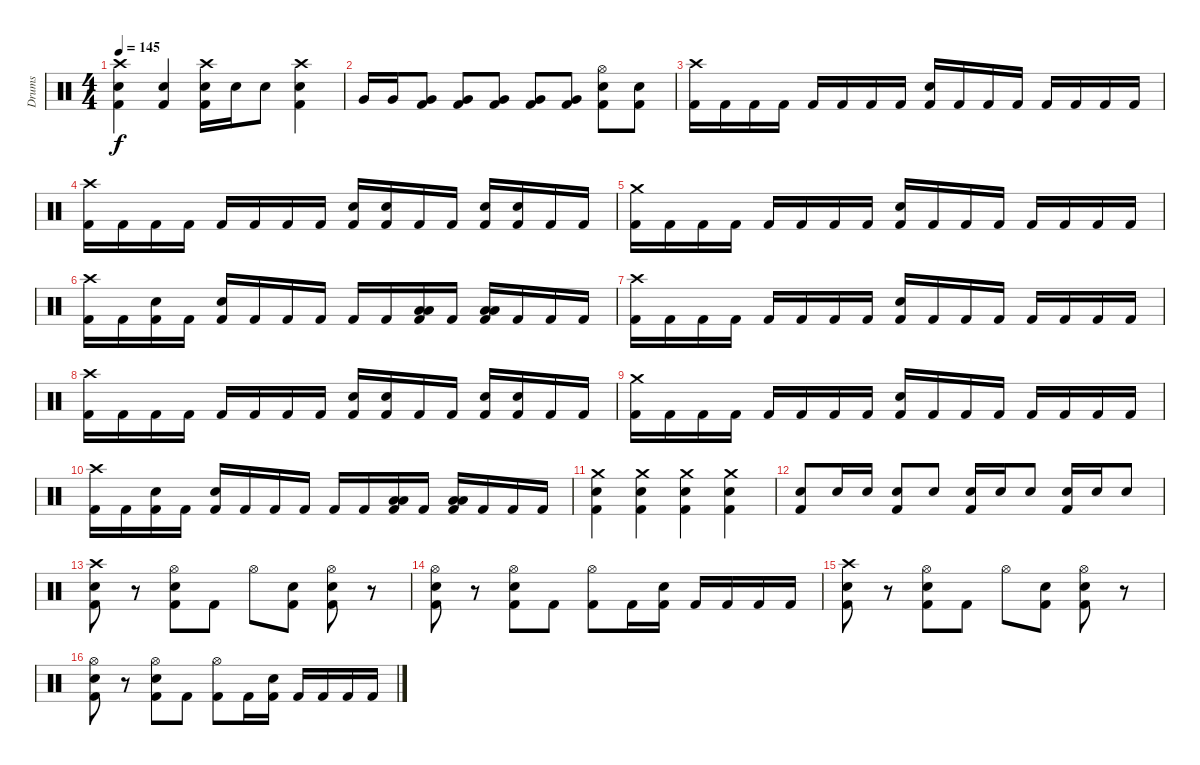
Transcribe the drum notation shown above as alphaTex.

\track ("Drums" "Drums") {instrument percussion}
\staff {score}
\articulation defaults
\ts (4 4)
\tempo 145
\clef neutral
\ks c
("Crash high (hit)" "Snare (hit) 2" "Kick (hit) 2").4{dy f} ("Snare (hit) 2" "Kick (hit) 2").4 ("Crash high (hit)" "Snare (hit) 2" "Kick (hit) 2").16 "Snare (hit) 2".16 "Snare (hit) 2".8 ("Crash high (hit)" "Snare (hit) 2" "Kick (hit) 2").4 |
"Very Low Tom (hit)".16 "Very Low Tom (hit)".16 ("Very Low Tom (hit)" "Kick (hit) 2").8 ("Very Low Tom (hit)" "Kick (hit) 2").8 ("Very Low Tom (hit)" "Kick (hit) 2").8 ("Very Low Tom (hit)" "Kick (hit) 2").8 ("Very Low Tom (hit)" "Kick (hit) 2").8 ("Hi-Hat (open)" "Snare (hit) 2" "Kick (hit) 2").8 ("Snare (hit) 2" "Kick (hit) 2").8 |
("Crash high (hit)" "Kick (hit) 2").16 "Kick (hit) 2".16 "Kick (hit) 2".16 "Kick (hit) 2".16 "Kick (hit) 2".16 "Kick (hit) 2".16 "Kick (hit) 2".16 "Kick (hit) 2".16 ("Snare (hit) 2" "Kick (hit) 2").16 "Kick (hit) 2".16 "Kick (hit) 2".16 "Kick (hit) 2".16 "Kick (hit) 2".16 "Kick (hit) 2".16 "Kick (hit) 2".16 "Kick (hit) 2".16 |
("Crash high (hit)" "Kick (hit) 2").16 "Kick (hit) 2".16 "Kick (hit) 2".16 "Kick (hit) 2".16 "Kick (hit) 2".16 "Kick (hit) 2".16 "Kick (hit) 2".16 "Kick (hit) 2".16 ("Snare (hit) 2" "Kick (hit) 2").16 ("Snare (hit) 2" "Kick (hit) 2").16 "Kick (hit) 2".16 "Kick (hit) 2".16 ("Snare (hit) 2" "Kick (hit) 2").16 ("Snare (hit) 2" "Kick (hit) 2").16 "Kick (hit) 2".16 "Kick (hit) 2".16 |
("Crash medium (hit)" "Kick (hit) 2").16 "Kick (hit) 2".16 "Kick (hit) 2".16 "Kick (hit) 2".16 "Kick (hit) 2".16 "Kick (hit) 2".16 "Kick (hit) 2".16 "Kick (hit) 2".16 ("Snare (hit) 2" "Kick (hit) 2").16 "Kick (hit) 2".16 "Kick (hit) 2".16 "Kick (hit) 2".16 "Kick (hit) 2".16 "Kick (hit) 2".16 "Kick (hit) 2".16 "Kick (hit) 2".16 |
("Crash high (hit)" "Kick (hit) 2").16 "Kick (hit) 2".16 ("Snare (hit) 2" "Kick (hit) 2").16 "Kick (hit) 2".16 ("Snare (hit) 2" "Kick (hit) 2").16 "Kick (hit) 2".16 "Kick (hit) 2".16 "Kick (hit) 2".16 "Kick (hit) 2".16 "Kick (hit) 2".16 ("Low Tom (hit)" "Low Tom (hit)" "Kick (hit) 2").16 "Kick (hit) 2".16 ("Low Tom (hit)" "Low Tom (hit)" "Kick (hit) 2").16 "Kick (hit) 2".16 "Kick (hit) 2".16 "Kick (hit) 2".16 |
("Crash high (hit)" "Kick (hit) 2").16 "Kick (hit) 2".16 "Kick (hit) 2".16 "Kick (hit) 2".16 "Kick (hit) 2".16 "Kick (hit) 2".16 "Kick (hit) 2".16 "Kick (hit) 2".16 ("Snare (hit) 2" "Kick (hit) 2").16 "Kick (hit) 2".16 "Kick (hit) 2".16 "Kick (hit) 2".16 "Kick (hit) 2".16 "Kick (hit) 2".16 "Kick (hit) 2".16 "Kick (hit) 2".16 |
("Crash high (hit)" "Kick (hit) 2").16 "Kick (hit) 2".16 "Kick (hit) 2".16 "Kick (hit) 2".16 "Kick (hit) 2".16 "Kick (hit) 2".16 "Kick (hit) 2".16 "Kick (hit) 2".16 ("Snare (hit) 2" "Kick (hit) 2").16 ("Snare (hit) 2" "Kick (hit) 2").16 "Kick (hit) 2".16 "Kick (hit) 2".16 ("Snare (hit) 2" "Kick (hit) 2").16 ("Snare (hit) 2" "Kick (hit) 2").16 "Kick (hit) 2".16 "Kick (hit) 2".16 |
("Crash medium (hit)" "Kick (hit) 2").16 "Kick (hit) 2".16 "Kick (hit) 2".16 "Kick (hit) 2".16 "Kick (hit) 2".16 "Kick (hit) 2".16 "Kick (hit) 2".16 "Kick (hit) 2".16 ("Snare (hit) 2" "Kick (hit) 2").16 "Kick (hit) 2".16 "Kick (hit) 2".16 "Kick (hit) 2".16 "Kick (hit) 2".16 "Kick (hit) 2".16 "Kick (hit) 2".16 "Kick (hit) 2".16 |
("Crash high (hit)" "Kick (hit) 2").16 "Kick (hit) 2".16 ("Snare (hit) 2" "Kick (hit) 2").16 "Kick (hit) 2".16 ("Snare (hit) 2" "Kick (hit) 2").16 "Kick (hit) 2".16 "Kick (hit) 2".16 "Kick (hit) 2".16 "Kick (hit) 2".16 "Kick (hit) 2".16 ("Low Tom (hit)" "Low Tom (hit)" "Kick (hit) 2").16 "Kick (hit) 2".16 ("Low Tom (hit)" "Low Tom (hit)" "Kick (hit) 2").16 "Kick (hit) 2".16 "Kick (hit) 2".16 "Kick (hit) 2".16 |
("Crash medium (hit)" "Snare (hit) 2" "Kick (hit) 2").4 ("Crash medium (hit)" "Snare (hit) 2" "Kick (hit) 2").4 ("Crash medium (hit)" "Snare (hit) 2" "Kick (hit) 2").4 ("Crash medium (hit)" "Snare (hit) 2" "Kick (hit) 2").4 |
("Snare (hit) 2" "Kick (hit) 2").8 "Snare (hit) 2".16 "Snare (hit) 2".16 ("Snare (hit) 2" "Kick (hit) 2").8 "Snare (hit) 2".8 ("Snare (hit) 2" "Kick (hit) 2").16 "Snare (hit) 2".16 "Snare (hit) 2".8 ("Snare (hit) 2" "Kick (hit) 2").16 "Snare (hit) 2".16 "Snare (hit) 2".8 |
("Crash high (hit)" "Snare (hit) 2" "Kick (hit) 2").8 r.8 ("Snare (hit) 2" "Hi-Hat (open)" "Kick (hit) 2").8 "Kick (hit) 2".8 "Hi-Hat (open)".8 ("Snare (hit) 2" "Kick (hit) 2").8 ("Snare (hit) 2" "Hi-Hat (open)" "Kick (hit) 2").8 r.8 |
("Hi-Hat (open)" "Snare (hit) 2" "Kick (hit) 2").8 r.8 ("Snare (hit) 2" "Hi-Hat (open)" "Kick (hit) 2").8 "Kick (hit) 2".8 ("Hi-Hat (open)" "Kick (hit) 2").8 "Kick (hit) 2".16 ("Snare (hit) 2" "Kick (hit) 2").16 "Kick (hit) 2".16 "Kick (hit) 2".16 "Kick (hit) 2".16 "Kick (hit) 2".16 |
("Crash high (hit)" "Snare (hit) 2" "Kick (hit) 2").8 r.8 ("Snare (hit) 2" "Hi-Hat (open)" "Kick (hit) 2").8 "Kick (hit) 2".8 "Hi-Hat (open)".8 ("Snare (hit) 2" "Kick (hit) 2").8 ("Snare (hit) 2" "Hi-Hat (open)" "Kick (hit) 2").8 r.8 |
("Hi-Hat (open)" "Snare (hit) 2" "Kick (hit) 2").8 r.8 ("Snare (hit) 2" "Hi-Hat (open)" "Kick (hit) 2").8 "Kick (hit) 2".8 ("Hi-Hat (open)" "Kick (hit) 2").8 "Kick (hit) 2".16 ("Snare (hit) 2" "Kick (hit) 2").16 "Kick (hit) 2".16 "Kick (hit) 2".16 "Kick (hit) 2".16 "Kick (hit) 2".16
